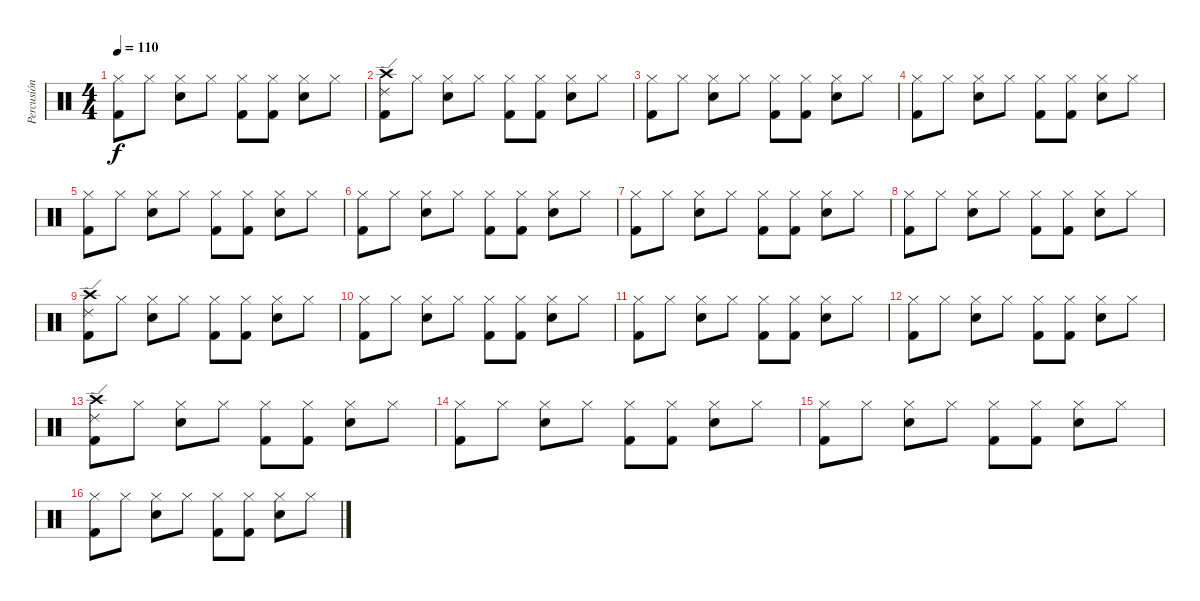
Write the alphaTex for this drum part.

\track ("Percusión" "Percusión") {instrument percussion}
\staff {score}
\articulation defaults
\ts (4 4)
\tempo 110
\clef neutral
\ks c
("Kick (hit) 2" "Hi-Hat (closed)").8{dy f} "Hi-Hat (closed)".8 ("Snare (hit) 2" "Hi-Hat (closed)").8 "Hi-Hat (closed)".8 ("Kick (hit) 2" "Hi-Hat (closed)").8 ("Kick (hit) 2" "Hi-Hat (closed)").8 ("Snare (hit) 2" "Hi-Hat (closed)").8 "Hi-Hat (closed)".8 |
("Ride (edge) 2" "Kick (hit) 2" "Crash high (hit)").8 "Hi-Hat (closed)".8 ("Snare (hit) 2" "Hi-Hat (closed)").8 "Hi-Hat (closed)".8 ("Kick (hit) 2" "Hi-Hat (closed)").8 ("Kick (hit) 2" "Hi-Hat (closed)").8 ("Snare (hit) 2" "Hi-Hat (closed)").8 "Hi-Hat (closed)".8 |
("Kick (hit) 2" "Hi-Hat (closed)").8 "Hi-Hat (closed)".8 ("Snare (hit) 2" "Hi-Hat (closed)").8 "Hi-Hat (closed)".8 ("Kick (hit) 2" "Hi-Hat (closed)").8 ("Kick (hit) 2" "Hi-Hat (closed)").8 ("Snare (hit) 2" "Hi-Hat (closed)").8 "Hi-Hat (closed)".8 |
("Kick (hit) 2" "Hi-Hat (closed)").8 "Hi-Hat (closed)".8 ("Snare (hit) 2" "Hi-Hat (closed)").8 "Hi-Hat (closed)".8 ("Kick (hit) 2" "Hi-Hat (closed)").8 ("Kick (hit) 2" "Hi-Hat (closed)").8 ("Snare (hit) 2" "Hi-Hat (closed)").8 "Hi-Hat (closed)".8 |
("Kick (hit) 2" "Hi-Hat (closed)").8 "Hi-Hat (closed)".8 ("Snare (hit) 2" "Hi-Hat (closed)").8 "Hi-Hat (closed)".8 ("Kick (hit) 2" "Hi-Hat (closed)").8 ("Kick (hit) 2" "Hi-Hat (closed)").8 ("Snare (hit) 2" "Hi-Hat (closed)").8 "Hi-Hat (closed)".8 |
("Kick (hit) 2" "Hi-Hat (closed)").8 "Hi-Hat (closed)".8 ("Snare (hit) 2" "Hi-Hat (closed)").8 "Hi-Hat (closed)".8 ("Kick (hit) 2" "Hi-Hat (closed)").8 ("Kick (hit) 2" "Hi-Hat (closed)").8 ("Snare (hit) 2" "Hi-Hat (closed)").8 "Hi-Hat (closed)".8 |
("Kick (hit) 2" "Hi-Hat (closed)").8 "Hi-Hat (closed)".8 ("Snare (hit) 2" "Hi-Hat (closed)").8 "Hi-Hat (closed)".8 ("Kick (hit) 2" "Hi-Hat (closed)").8 ("Kick (hit) 2" "Hi-Hat (closed)").8 ("Snare (hit) 2" "Hi-Hat (closed)").8 "Hi-Hat (closed)".8 |
("Kick (hit) 2" "Hi-Hat (closed)").8 "Hi-Hat (closed)".8 ("Snare (hit) 2" "Hi-Hat (closed)").8 "Hi-Hat (closed)".8 ("Kick (hit) 2" "Hi-Hat (closed)").8 ("Kick (hit) 2" "Hi-Hat (closed)").8 ("Snare (hit) 2" "Hi-Hat (closed)").8 "Hi-Hat (closed)".8 |
("Ride (edge) 2" "Kick (hit) 2" "Crash high (hit)").8 "Hi-Hat (closed)".8 ("Snare (hit) 2" "Hi-Hat (closed)").8 "Hi-Hat (closed)".8 ("Kick (hit) 2" "Hi-Hat (closed)").8 ("Kick (hit) 2" "Hi-Hat (closed)").8 ("Snare (hit) 2" "Hi-Hat (closed)").8 "Hi-Hat (closed)".8 |
("Kick (hit) 2" "Hi-Hat (closed)").8 "Hi-Hat (closed)".8 ("Snare (hit) 2" "Hi-Hat (closed)").8 "Hi-Hat (closed)".8 ("Kick (hit) 2" "Hi-Hat (closed)").8 ("Kick (hit) 2" "Hi-Hat (closed)").8 ("Snare (hit) 2" "Hi-Hat (closed)").8 "Hi-Hat (closed)".8 |
("Kick (hit) 2" "Hi-Hat (closed)").8 "Hi-Hat (closed)".8 ("Snare (hit) 2" "Hi-Hat (closed)").8 "Hi-Hat (closed)".8 ("Kick (hit) 2" "Hi-Hat (closed)").8 ("Kick (hit) 2" "Hi-Hat (closed)").8 ("Snare (hit) 2" "Hi-Hat (closed)").8 "Hi-Hat (closed)".8 |
("Kick (hit) 2" "Hi-Hat (closed)").8 "Hi-Hat (closed)".8 ("Snare (hit) 2" "Hi-Hat (closed)").8 "Hi-Hat (closed)".8 ("Kick (hit) 2" "Hi-Hat (closed)").8 ("Kick (hit) 2" "Hi-Hat (closed)").8 ("Snare (hit) 2" "Hi-Hat (closed)").8 "Hi-Hat (closed)".8 |
("Ride (edge) 2" "Kick (hit) 2" "Crash high (hit)").8 "Hi-Hat (closed)".8 ("Snare (hit) 2" "Hi-Hat (closed)").8 "Hi-Hat (closed)".8 ("Kick (hit) 2" "Hi-Hat (closed)").8 ("Kick (hit) 2" "Hi-Hat (closed)").8 ("Snare (hit) 2" "Hi-Hat (closed)").8 "Hi-Hat (closed)".8 |
("Kick (hit) 2" "Hi-Hat (closed)").8 "Hi-Hat (closed)".8 ("Snare (hit) 2" "Hi-Hat (closed)").8 "Hi-Hat (closed)".8 ("Kick (hit) 2" "Hi-Hat (closed)").8 ("Kick (hit) 2" "Hi-Hat (closed)").8 ("Snare (hit) 2" "Hi-Hat (closed)").8 "Hi-Hat (closed)".8 |
("Kick (hit) 2" "Hi-Hat (closed)").8 "Hi-Hat (closed)".8 ("Snare (hit) 2" "Hi-Hat (closed)").8 "Hi-Hat (closed)".8 ("Kick (hit) 2" "Hi-Hat (closed)").8 ("Kick (hit) 2" "Hi-Hat (closed)").8 ("Snare (hit) 2" "Hi-Hat (closed)").8 "Hi-Hat (closed)".8 |
("Kick (hit) 2" "Hi-Hat (closed)").8 "Hi-Hat (closed)".8 ("Snare (hit) 2" "Hi-Hat (closed)").8 "Hi-Hat (closed)".8 ("Kick (hit) 2" "Hi-Hat (closed)").8 ("Kick (hit) 2" "Hi-Hat (closed)").8 ("Snare (hit) 2" "Hi-Hat (closed)").8 "Hi-Hat (closed)".8
